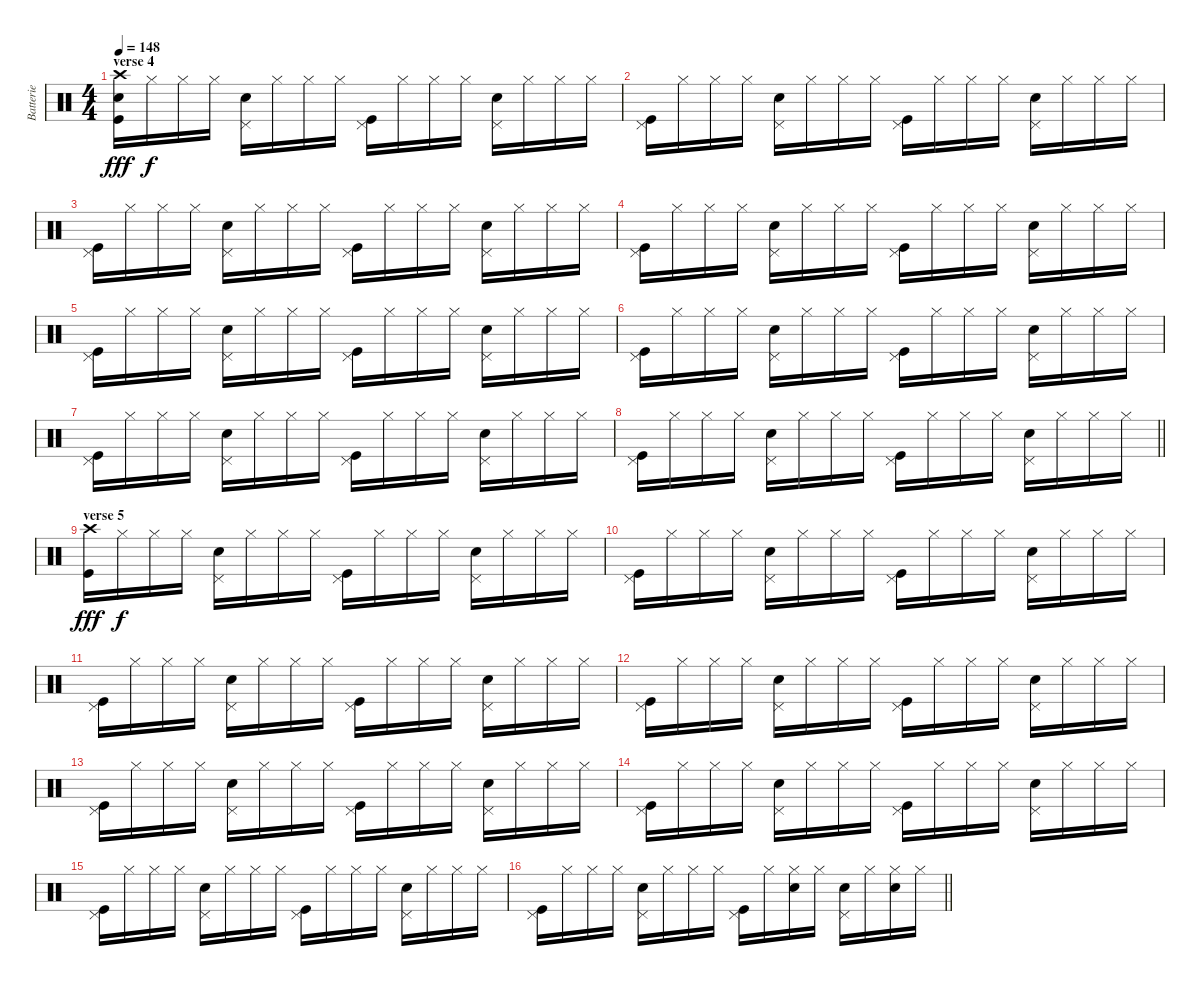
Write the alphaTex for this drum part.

\track ("Batterie" "Batterie") {instrument percussion}
\staff {score}
\articulation defaults
\ts (4 4)
\section ("" "verse 4")
\tempo 148
\clef neutral
\ks c
("Crash high (hit)" "Electric Snare (hit)" "Kick (hit)").16{dy fff} "Hi-Hat (closed)".16{dy f} "Hi-Hat (closed)".16 "Hi-Hat (closed)".16 ("Pedal Hi-Hat (hit)" "Electric Snare (hit)").16 "Hi-Hat (closed)".16 "Hi-Hat (closed)".16 "Hi-Hat (closed)".16 ("Pedal Hi-Hat (hit)" "Kick (hit)").16 "Hi-Hat (closed)".16 "Hi-Hat (closed)".16 "Hi-Hat (closed)".16 ("Pedal Hi-Hat (hit)" "Electric Snare (hit)").16 "Hi-Hat (closed)".16 "Hi-Hat (closed)".16 "Hi-Hat (closed)".16 |
("Pedal Hi-Hat (hit)" "Kick (hit)").16 "Hi-Hat (closed)".16 "Hi-Hat (closed)".16 "Hi-Hat (closed)".16 ("Pedal Hi-Hat (hit)" "Electric Snare (hit)").16 "Hi-Hat (closed)".16 "Hi-Hat (closed)".16 "Hi-Hat (closed)".16 ("Pedal Hi-Hat (hit)" "Kick (hit)").16 "Hi-Hat (closed)".16 "Hi-Hat (closed)".16 "Hi-Hat (closed)".16 ("Pedal Hi-Hat (hit)" "Electric Snare (hit)").16 "Hi-Hat (closed)".16 "Hi-Hat (closed)".16 "Hi-Hat (closed)".16 |
("Pedal Hi-Hat (hit)" "Kick (hit)").16 "Hi-Hat (closed)".16 "Hi-Hat (closed)".16 "Hi-Hat (closed)".16 ("Pedal Hi-Hat (hit)" "Electric Snare (hit)").16 "Hi-Hat (closed)".16 "Hi-Hat (closed)".16 "Hi-Hat (closed)".16 ("Pedal Hi-Hat (hit)" "Kick (hit)").16 "Hi-Hat (closed)".16 "Hi-Hat (closed)".16 "Hi-Hat (closed)".16 ("Pedal Hi-Hat (hit)" "Electric Snare (hit)").16 "Hi-Hat (closed)".16 "Hi-Hat (closed)".16 "Hi-Hat (closed)".16 |
("Pedal Hi-Hat (hit)" "Kick (hit)").16 "Hi-Hat (closed)".16 "Hi-Hat (closed)".16 "Hi-Hat (closed)".16 ("Pedal Hi-Hat (hit)" "Electric Snare (hit)").16 "Hi-Hat (closed)".16 "Hi-Hat (closed)".16 "Hi-Hat (closed)".16 ("Pedal Hi-Hat (hit)" "Kick (hit)").16 "Hi-Hat (closed)".16 "Hi-Hat (closed)".16 "Hi-Hat (closed)".16 ("Pedal Hi-Hat (hit)" "Electric Snare (hit)").16 "Hi-Hat (closed)".16 "Hi-Hat (closed)".16 "Hi-Hat (closed)".16 |
("Pedal Hi-Hat (hit)" "Kick (hit)").16 "Hi-Hat (closed)".16 "Hi-Hat (closed)".16 "Hi-Hat (closed)".16 ("Pedal Hi-Hat (hit)" "Electric Snare (hit)").16 "Hi-Hat (closed)".16 "Hi-Hat (closed)".16 "Hi-Hat (closed)".16 ("Pedal Hi-Hat (hit)" "Kick (hit)").16 "Hi-Hat (closed)".16 "Hi-Hat (closed)".16 "Hi-Hat (closed)".16 ("Pedal Hi-Hat (hit)" "Electric Snare (hit)").16 "Hi-Hat (closed)".16 "Hi-Hat (closed)".16 "Hi-Hat (closed)".16 |
("Pedal Hi-Hat (hit)" "Kick (hit)").16 "Hi-Hat (closed)".16 "Hi-Hat (closed)".16 "Hi-Hat (closed)".16 ("Pedal Hi-Hat (hit)" "Electric Snare (hit)").16 "Hi-Hat (closed)".16 "Hi-Hat (closed)".16 "Hi-Hat (closed)".16 ("Pedal Hi-Hat (hit)" "Kick (hit)").16 "Hi-Hat (closed)".16 "Hi-Hat (closed)".16 "Hi-Hat (closed)".16 ("Pedal Hi-Hat (hit)" "Electric Snare (hit)").16 "Hi-Hat (closed)".16 "Hi-Hat (closed)".16 "Hi-Hat (closed)".16 |
("Pedal Hi-Hat (hit)" "Kick (hit)").16 "Hi-Hat (closed)".16 "Hi-Hat (closed)".16 "Hi-Hat (closed)".16 ("Pedal Hi-Hat (hit)" "Electric Snare (hit)").16 "Hi-Hat (closed)".16 "Hi-Hat (closed)".16 "Hi-Hat (closed)".16 ("Pedal Hi-Hat (hit)" "Kick (hit)").16 "Hi-Hat (closed)".16 "Hi-Hat (closed)".16 "Hi-Hat (closed)".16 ("Pedal Hi-Hat (hit)" "Electric Snare (hit)").16 "Hi-Hat (closed)".16 "Hi-Hat (closed)".16 "Hi-Hat (closed)".16 |
\barLineRight lightlight
("Pedal Hi-Hat (hit)" "Kick (hit)").16 "Hi-Hat (closed)".16 "Hi-Hat (closed)".16 "Hi-Hat (closed)".16 ("Pedal Hi-Hat (hit)" "Electric Snare (hit)").16 "Hi-Hat (closed)".16 "Hi-Hat (closed)".16 "Hi-Hat (closed)".16 ("Pedal Hi-Hat (hit)" "Kick (hit)").16 "Hi-Hat (closed)".16 "Hi-Hat (closed)".16 "Hi-Hat (closed)".16 ("Pedal Hi-Hat (hit)" "Electric Snare (hit)").16 "Hi-Hat (closed)".16 "Hi-Hat (closed)".16 "Hi-Hat (closed)".16 |
\section ("" "verse 5")
("Crash high (hit)" "Kick (hit)").16{dy fff} "Hi-Hat (closed)".16{dy f} "Hi-Hat (closed)".16 "Hi-Hat (closed)".16 ("Pedal Hi-Hat (hit)" "Electric Snare (hit)").16 "Hi-Hat (closed)".16 "Hi-Hat (closed)".16 "Hi-Hat (closed)".16 ("Pedal Hi-Hat (hit)" "Kick (hit)").16 "Hi-Hat (closed)".16 "Hi-Hat (closed)".16 "Hi-Hat (closed)".16 ("Pedal Hi-Hat (hit)" "Electric Snare (hit)").16 "Hi-Hat (closed)".16 "Hi-Hat (closed)".16 "Hi-Hat (closed)".16 |
("Pedal Hi-Hat (hit)" "Kick (hit)").16 "Hi-Hat (closed)".16 "Hi-Hat (closed)".16 "Hi-Hat (closed)".16 ("Pedal Hi-Hat (hit)" "Electric Snare (hit)").16 "Hi-Hat (closed)".16 "Hi-Hat (closed)".16 "Hi-Hat (closed)".16 ("Pedal Hi-Hat (hit)" "Kick (hit)").16 "Hi-Hat (closed)".16 "Hi-Hat (closed)".16 "Hi-Hat (closed)".16 ("Pedal Hi-Hat (hit)" "Electric Snare (hit)").16 "Hi-Hat (closed)".16 "Hi-Hat (closed)".16 "Hi-Hat (closed)".16 |
("Pedal Hi-Hat (hit)" "Kick (hit)").16 "Hi-Hat (closed)".16 "Hi-Hat (closed)".16 "Hi-Hat (closed)".16 ("Pedal Hi-Hat (hit)" "Electric Snare (hit)").16 "Hi-Hat (closed)".16 "Hi-Hat (closed)".16 "Hi-Hat (closed)".16 ("Pedal Hi-Hat (hit)" "Kick (hit)").16 "Hi-Hat (closed)".16 "Hi-Hat (closed)".16 "Hi-Hat (closed)".16 ("Pedal Hi-Hat (hit)" "Electric Snare (hit)").16 "Hi-Hat (closed)".16 "Hi-Hat (closed)".16 "Hi-Hat (closed)".16 |
("Pedal Hi-Hat (hit)" "Kick (hit)").16 "Hi-Hat (closed)".16 "Hi-Hat (closed)".16 "Hi-Hat (closed)".16 ("Pedal Hi-Hat (hit)" "Electric Snare (hit)").16 "Hi-Hat (closed)".16 "Hi-Hat (closed)".16 "Hi-Hat (closed)".16 ("Pedal Hi-Hat (hit)" "Kick (hit)").16 "Hi-Hat (closed)".16 "Hi-Hat (closed)".16 "Hi-Hat (closed)".16 ("Pedal Hi-Hat (hit)" "Electric Snare (hit)").16 "Hi-Hat (closed)".16 "Hi-Hat (closed)".16 "Hi-Hat (closed)".16 |
("Pedal Hi-Hat (hit)" "Kick (hit)").16 "Hi-Hat (closed)".16 "Hi-Hat (closed)".16 "Hi-Hat (closed)".16 ("Pedal Hi-Hat (hit)" "Electric Snare (hit)").16 "Hi-Hat (closed)".16 "Hi-Hat (closed)".16 "Hi-Hat (closed)".16 ("Pedal Hi-Hat (hit)" "Kick (hit)").16 "Hi-Hat (closed)".16 "Hi-Hat (closed)".16 "Hi-Hat (closed)".16 ("Pedal Hi-Hat (hit)" "Electric Snare (hit)").16 "Hi-Hat (closed)".16 "Hi-Hat (closed)".16 "Hi-Hat (closed)".16 |
("Pedal Hi-Hat (hit)" "Kick (hit)").16 "Hi-Hat (closed)".16 "Hi-Hat (closed)".16 "Hi-Hat (closed)".16 ("Pedal Hi-Hat (hit)" "Electric Snare (hit)").16 "Hi-Hat (closed)".16 "Hi-Hat (closed)".16 "Hi-Hat (closed)".16 ("Pedal Hi-Hat (hit)" "Kick (hit)").16 "Hi-Hat (closed)".16 "Hi-Hat (closed)".16 "Hi-Hat (closed)".16 ("Pedal Hi-Hat (hit)" "Electric Snare (hit)").16 "Hi-Hat (closed)".16 "Hi-Hat (closed)".16 "Hi-Hat (closed)".16 |
("Pedal Hi-Hat (hit)" "Kick (hit)").16 "Hi-Hat (closed)".16 "Hi-Hat (closed)".16 "Hi-Hat (closed)".16 ("Pedal Hi-Hat (hit)" "Electric Snare (hit)").16 "Hi-Hat (closed)".16 "Hi-Hat (closed)".16 "Hi-Hat (closed)".16 ("Pedal Hi-Hat (hit)" "Kick (hit)").16 "Hi-Hat (closed)".16 "Hi-Hat (closed)".16 "Hi-Hat (closed)".16 ("Pedal Hi-Hat (hit)" "Electric Snare (hit)").16 "Hi-Hat (closed)".16 "Hi-Hat (closed)".16 "Hi-Hat (closed)".16 |
\barLineRight lightlight
("Pedal Hi-Hat (hit)" "Kick (hit)").16 "Hi-Hat (closed)".16 "Hi-Hat (closed)".16 "Hi-Hat (closed)".16 ("Pedal Hi-Hat (hit)" "Electric Snare (hit)").16 "Hi-Hat (closed)".16 "Hi-Hat (closed)".16 "Hi-Hat (closed)".16 ("Pedal Hi-Hat (hit)" "Kick (hit)").16 "Hi-Hat (closed)".16 ("Hi-Hat (closed)" "Electric Snare (hit)").16 "Hi-Hat (closed)".16 ("Pedal Hi-Hat (hit)" "Electric Snare (hit)").16 "Hi-Hat (closed)".16 ("Hi-Hat (closed)" "Electric Snare (hit)").16 "Hi-Hat (closed)".16
